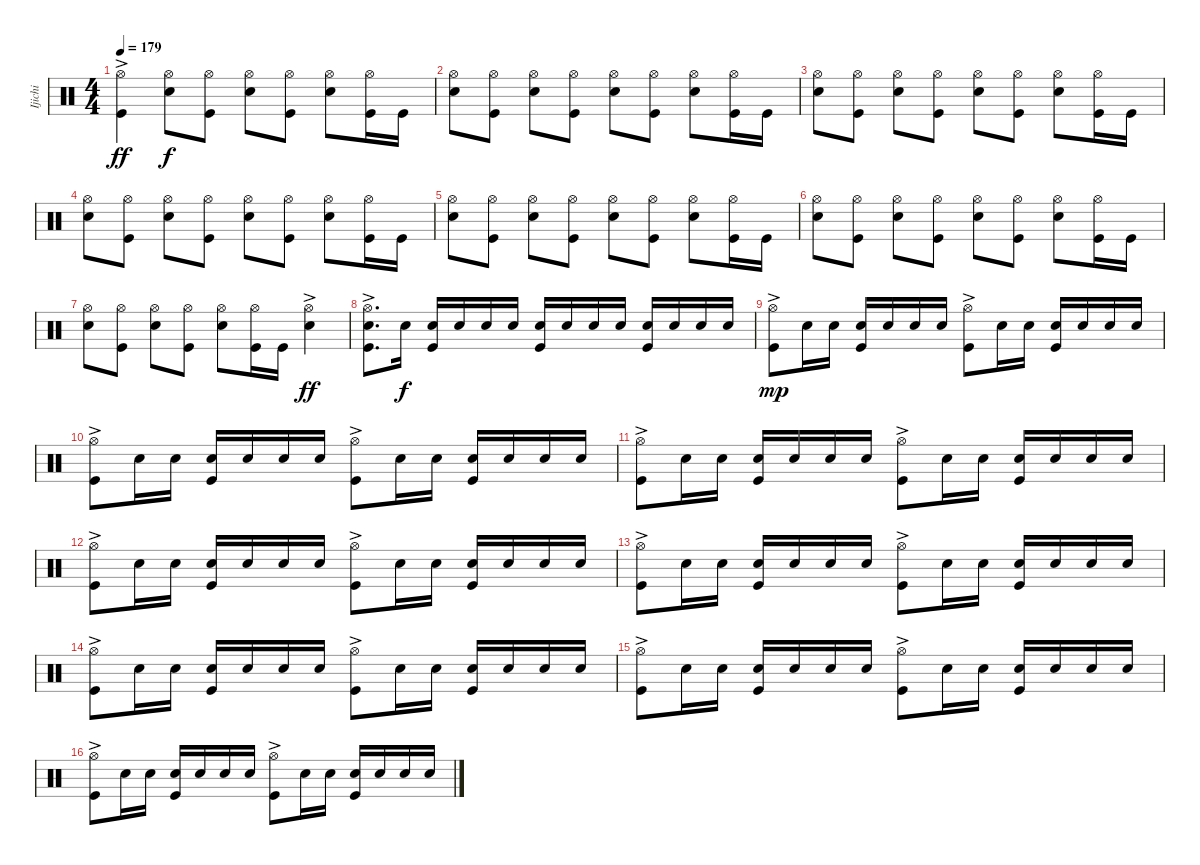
\track ("Ijichi" "Ijichi") {instrument percussion}
\staff {score}
\articulation defaults
\ts (4 4)
\tempo 179
\clef neutral
\ks c
("Hi-Hat (open)"{ac} "Kick (hit)").4{dy ff} ("Hi-Hat (open)" "Snare (hit) 2").8{dy f} ("Hi-Hat (open)" "Kick (hit)").8 ("Hi-Hat (open)" "Snare (hit) 2").8 ("Hi-Hat (open)" "Kick (hit)").8 ("Hi-Hat (open)" "Snare (hit) 2").8 ("Hi-Hat (open)" "Kick (hit)").16 "Kick (hit)".16 |
("Hi-Hat (open)" "Snare (hit) 2").8 ("Hi-Hat (open)" "Kick (hit)").8 ("Hi-Hat (open)" "Snare (hit) 2").8 ("Hi-Hat (open)" "Kick (hit)").8 ("Hi-Hat (open)" "Snare (hit) 2").8 ("Hi-Hat (open)" "Kick (hit)").8 ("Hi-Hat (open)" "Snare (hit) 2").8 ("Hi-Hat (open)" "Kick (hit)").16 "Kick (hit)".16 |
("Hi-Hat (open)" "Snare (hit) 2").8 ("Hi-Hat (open)" "Kick (hit)").8 ("Hi-Hat (open)" "Snare (hit) 2").8 ("Hi-Hat (open)" "Kick (hit)").8 ("Hi-Hat (open)" "Snare (hit) 2").8 ("Hi-Hat (open)" "Kick (hit)").8 ("Hi-Hat (open)" "Snare (hit) 2").8 ("Hi-Hat (open)" "Kick (hit)").16 "Kick (hit)".16 |
("Hi-Hat (open)" "Snare (hit) 2").8 ("Hi-Hat (open)" "Kick (hit)").8 ("Hi-Hat (open)" "Snare (hit) 2").8 ("Hi-Hat (open)" "Kick (hit)").8 ("Hi-Hat (open)" "Snare (hit) 2").8 ("Hi-Hat (open)" "Kick (hit)").8 ("Hi-Hat (open)" "Snare (hit) 2").8 ("Hi-Hat (open)" "Kick (hit)").16 "Kick (hit)".16 |
("Hi-Hat (open)" "Snare (hit) 2").8 ("Hi-Hat (open)" "Kick (hit)").8 ("Hi-Hat (open)" "Snare (hit) 2").8 ("Hi-Hat (open)" "Kick (hit)").8 ("Hi-Hat (open)" "Snare (hit) 2").8 ("Hi-Hat (open)" "Kick (hit)").8 ("Hi-Hat (open)" "Snare (hit) 2").8 ("Hi-Hat (open)" "Kick (hit)").16 "Kick (hit)".16 |
("Hi-Hat (open)" "Snare (hit) 2").8 ("Hi-Hat (open)" "Kick (hit)").8 ("Hi-Hat (open)" "Snare (hit) 2").8 ("Hi-Hat (open)" "Kick (hit)").8 ("Hi-Hat (open)" "Snare (hit) 2").8 ("Hi-Hat (open)" "Kick (hit)").8 ("Hi-Hat (open)" "Snare (hit) 2").8 ("Hi-Hat (open)" "Kick (hit)").16 "Kick (hit)".16 |
("Hi-Hat (open)" "Snare (hit) 2").8 ("Hi-Hat (open)" "Kick (hit)").8 ("Hi-Hat (open)" "Snare (hit) 2").8 ("Hi-Hat (open)" "Kick (hit)").8 ("Hi-Hat (open)" "Snare (hit) 2").8 ("Hi-Hat (open)" "Kick (hit)").16 "Kick (hit)".16 ("Hi-Hat (open)"{ac} "Snare (hit) 2").4{dy ff} |
("Hi-Hat (open)"{ac} "Snare (hit) 2" "Kick (hit)").8{d} "Snare (hit) 2".16{dy f} ("Snare (hit) 2" "Kick (hit)").16 "Snare (hit) 2".16 "Snare (hit) 2".16 "Snare (hit) 2".16 ("Snare (hit) 2" "Kick (hit)").16 "Snare (hit) 2".16 "Snare (hit) 2".16 "Snare (hit) 2".16 ("Snare (hit) 2" "Kick (hit)").16 "Snare (hit) 2".16 "Snare (hit) 2".16 "Snare (hit) 2".16 |
("Hi-Hat (open)"{ac} "Kick (hit)").8{dy mp} "Snare (hit) 2".16 "Snare (hit) 2".16 ("Snare (hit) 2" "Kick (hit)").16 "Snare (hit) 2".16 "Snare (hit) 2".16 "Snare (hit) 2".16 ("Hi-Hat (open)"{ac} "Kick (hit)").8 "Snare (hit) 2".16 "Snare (hit) 2".16 ("Snare (hit) 2" "Kick (hit)").16 "Snare (hit) 2".16 "Snare (hit) 2".16 "Snare (hit) 2".16 |
("Hi-Hat (open)"{ac} "Kick (hit)").8 "Snare (hit) 2".16 "Snare (hit) 2".16 ("Snare (hit) 2" "Kick (hit)").16 "Snare (hit) 2".16 "Snare (hit) 2".16 "Snare (hit) 2".16 ("Hi-Hat (open)"{ac} "Kick (hit)").8 "Snare (hit) 2".16 "Snare (hit) 2".16 ("Snare (hit) 2" "Kick (hit)").16 "Snare (hit) 2".16 "Snare (hit) 2".16 "Snare (hit) 2".16 |
("Hi-Hat (open)"{ac} "Kick (hit)").8 "Snare (hit) 2".16 "Snare (hit) 2".16 ("Snare (hit) 2" "Kick (hit)").16 "Snare (hit) 2".16 "Snare (hit) 2".16 "Snare (hit) 2".16 ("Hi-Hat (open)"{ac} "Kick (hit)").8 "Snare (hit) 2".16 "Snare (hit) 2".16 ("Snare (hit) 2" "Kick (hit)").16 "Snare (hit) 2".16 "Snare (hit) 2".16 "Snare (hit) 2".16 |
("Hi-Hat (open)"{ac} "Kick (hit)").8 "Snare (hit) 2".16 "Snare (hit) 2".16 ("Snare (hit) 2" "Kick (hit)").16 "Snare (hit) 2".16 "Snare (hit) 2".16 "Snare (hit) 2".16 ("Hi-Hat (open)"{ac} "Kick (hit)").8 "Snare (hit) 2".16 "Snare (hit) 2".16 ("Snare (hit) 2" "Kick (hit)").16 "Snare (hit) 2".16 "Snare (hit) 2".16 "Snare (hit) 2".16 |
("Hi-Hat (open)"{ac} "Kick (hit)").8 "Snare (hit) 2".16 "Snare (hit) 2".16 ("Snare (hit) 2" "Kick (hit)").16 "Snare (hit) 2".16 "Snare (hit) 2".16 "Snare (hit) 2".16 ("Hi-Hat (open)"{ac} "Kick (hit)").8 "Snare (hit) 2".16 "Snare (hit) 2".16 ("Snare (hit) 2" "Kick (hit)").16 "Snare (hit) 2".16 "Snare (hit) 2".16 "Snare (hit) 2".16 |
("Hi-Hat (open)"{ac} "Kick (hit)").8 "Snare (hit) 2".16 "Snare (hit) 2".16 ("Snare (hit) 2" "Kick (hit)").16 "Snare (hit) 2".16 "Snare (hit) 2".16 "Snare (hit) 2".16 ("Hi-Hat (open)"{ac} "Kick (hit)").8 "Snare (hit) 2".16 "Snare (hit) 2".16 ("Snare (hit) 2" "Kick (hit)").16 "Snare (hit) 2".16 "Snare (hit) 2".16 "Snare (hit) 2".16 |
("Hi-Hat (open)"{ac} "Kick (hit)").8 "Snare (hit) 2".16 "Snare (hit) 2".16 ("Snare (hit) 2" "Kick (hit)").16 "Snare (hit) 2".16 "Snare (hit) 2".16 "Snare (hit) 2".16 ("Hi-Hat (open)"{ac} "Kick (hit)").8 "Snare (hit) 2".16 "Snare (hit) 2".16 ("Snare (hit) 2" "Kick (hit)").16 "Snare (hit) 2".16 "Snare (hit) 2".16 "Snare (hit) 2".16 |
("Hi-Hat (open)"{ac} "Kick (hit)").8 "Snare (hit) 2".16 "Snare (hit) 2".16 ("Snare (hit) 2" "Kick (hit)").16 "Snare (hit) 2".16 "Snare (hit) 2".16 "Snare (hit) 2".16 ("Hi-Hat (open)"{ac} "Kick (hit)").8 "Snare (hit) 2".16 "Snare (hit) 2".16 ("Snare (hit) 2" "Kick (hit)").16 "Snare (hit) 2".16 "Snare (hit) 2".16 "Snare (hit) 2".16
